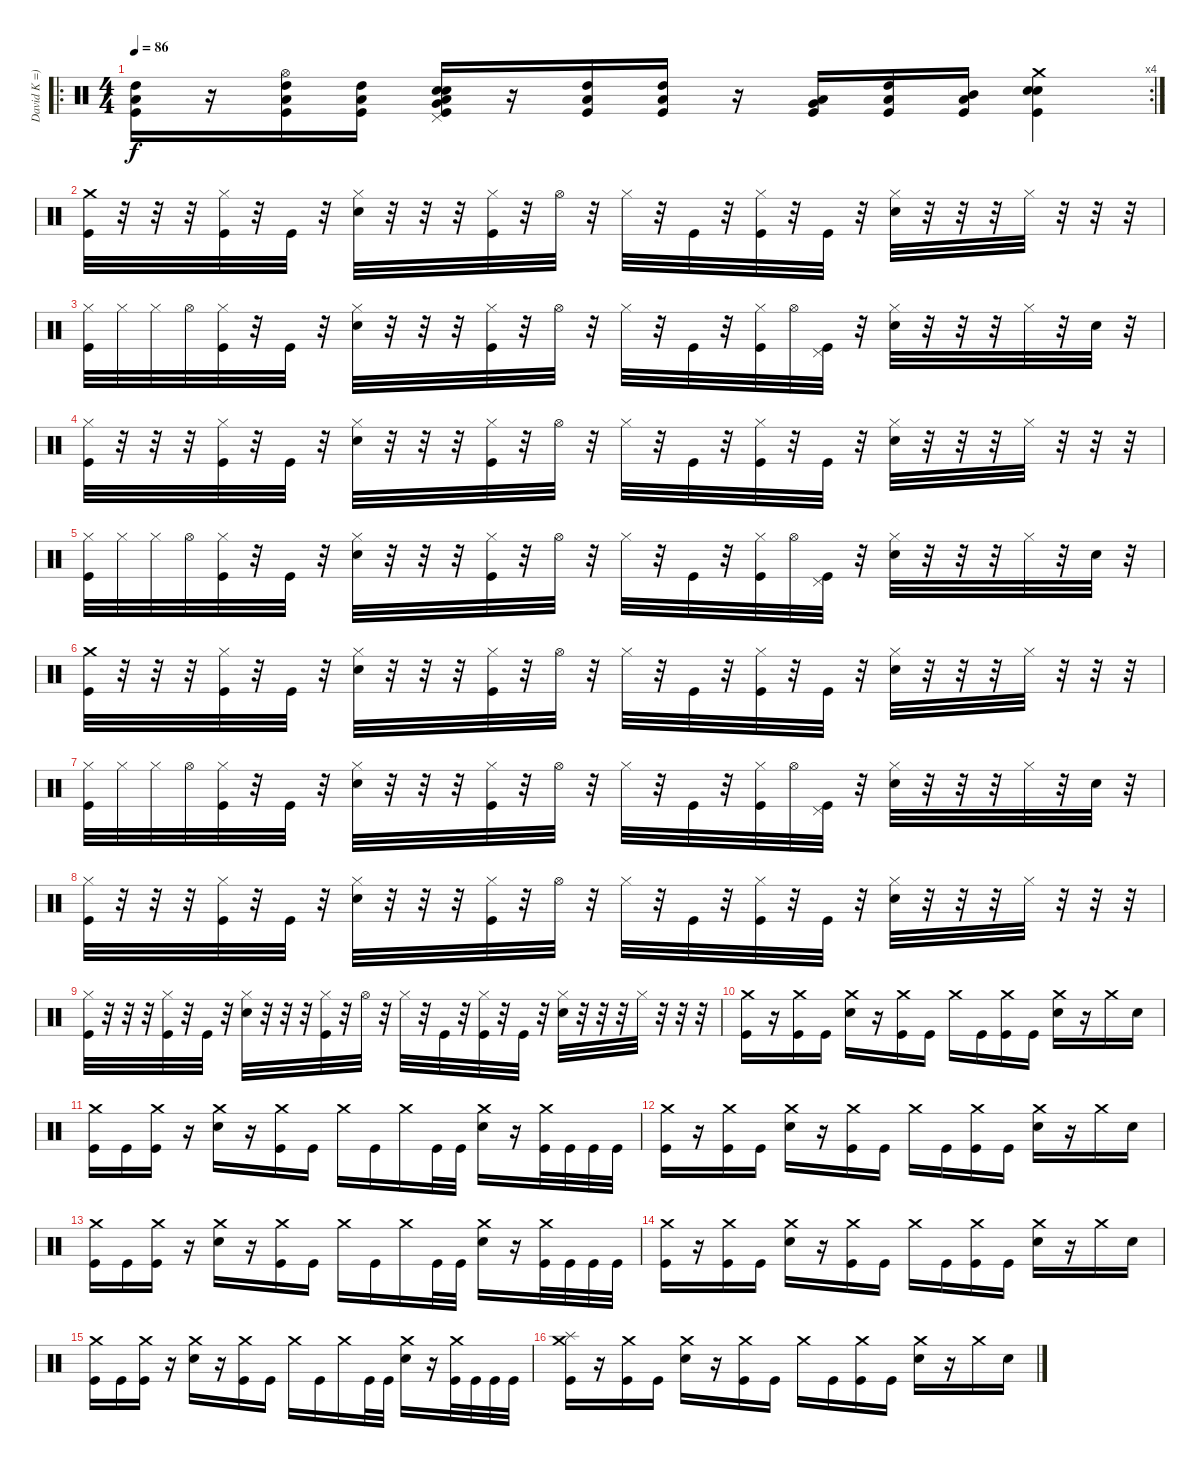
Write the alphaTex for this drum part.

\track ("David K =)" "David K =)") {instrument percussion}
\staff {score}
\articulation defaults
\ro
\rc 4
\ts (4 4)
\tempo 86
\clef neutral
\ks c
("Low Floor Tom (hit)" "High Tom (hit)" "Kick (hit)").16{dy f} r.16 ("Hi-Hat (open)" "Low Floor Tom (hit)" "High Tom (hit)" "Kick (hit)").16 ("Low Floor Tom (hit)" "High Tom (hit)" "Kick (hit)").16 ("Pedal Hi-Hat (hit)" "Low Floor Tom (hit)" "Electric Snare (hit)" "Kick (hit)" "Snare (hit) 2" "Very Low Tom (hit)").16 r.16 ("Low Floor Tom (hit)" "High Tom (hit)" "Kick (hit)").16 ("Low Floor Tom (hit)" "High Tom (hit)" "Kick (hit)").16 r.16 ("Low Floor Tom (hit)" "Very Low Tom (hit)" "Kick (hit)").16 ("Low Floor Tom (hit)" "High Tom (hit)" "Kick (hit)").16 ("Low Floor Tom (hit)" "Mid Tom (hit)" "Kick (hit)").16 ("Crash medium (hit)" "Snare (hit) 2" "Electric Snare (hit)" "Kick (hit)").4 |
("Crash medium (hit)" "Kick (hit)").32 r.32 r.32 r.32 ("Hi-Hat (closed)" "Kick (hit)").32 r.32 "Kick (hit)".32 r.32 ("Hi-Hat (closed)" "Electric Snare (hit)").32 r.32 r.32 r.32 ("Hi-Hat (closed)" "Kick (hit)").32 r.32 "Hi-Hat (open)".32 r.32 "Hi-Hat (closed)".32 r.32 "Kick (hit)".32 r.32 ("Hi-Hat (closed)" "Kick (hit)").32 r.32 "Kick (hit)".32 r.32 ("Hi-Hat (closed)" "Electric Snare (hit)").32 r.32 r.32 r.32 "Hi-Hat (closed)".32 r.32 r.32 r.32 |
("Hi-Hat (closed)" "Kick (hit)").32 "Hi-Hat (closed)".32 "Hi-Hat (closed)".32 "Hi-Hat (open)".32 ("Hi-Hat (closed)" "Kick (hit)").32 r.32 "Kick (hit)".32 r.32 ("Hi-Hat (closed)" "Electric Snare (hit)").32 r.32 r.32 r.32 ("Hi-Hat (closed)" "Kick (hit)").32 r.32 "Hi-Hat (open)".32 r.32 "Hi-Hat (closed)".32 r.32 "Kick (hit)".32 r.32 ("Hi-Hat (closed)" "Kick (hit)").32 "Hi-Hat (open)".32 ("Pedal Hi-Hat (hit)" "Kick (hit)").32 r.32 ("Hi-Hat (closed)" "Electric Snare (hit)").32 r.32 r.32 r.32 "Hi-Hat (closed)".32 r.32 "Electric Snare (hit)".32 r.32 |
("Hi-Hat (closed)" "Kick (hit)").32 r.32 r.32 r.32 ("Hi-Hat (closed)" "Kick (hit)").32 r.32 "Kick (hit)".32 r.32 ("Hi-Hat (closed)" "Electric Snare (hit)").32 r.32 r.32 r.32 ("Hi-Hat (closed)" "Kick (hit)").32 r.32 "Hi-Hat (open)".32 r.32 "Hi-Hat (closed)".32 r.32 "Kick (hit)".32 r.32 ("Hi-Hat (closed)" "Kick (hit)").32 r.32 "Kick (hit)".32 r.32 ("Hi-Hat (closed)" "Electric Snare (hit)").32 r.32 r.32 r.32 "Hi-Hat (closed)".32 r.32 r.32 r.32 |
("Hi-Hat (closed)" "Kick (hit)").32 "Hi-Hat (closed)".32 "Hi-Hat (closed)".32 "Hi-Hat (open)".32 ("Hi-Hat (closed)" "Kick (hit)").32 r.32 "Kick (hit)".32 r.32 ("Hi-Hat (closed)" "Electric Snare (hit)").32 r.32 r.32 r.32 ("Hi-Hat (closed)" "Kick (hit)").32 r.32 "Hi-Hat (open)".32 r.32 "Hi-Hat (closed)".32 r.32 "Kick (hit)".32 r.32 ("Hi-Hat (closed)" "Kick (hit)").32 "Hi-Hat (open)".32 ("Pedal Hi-Hat (hit)" "Kick (hit)").32 r.32 ("Hi-Hat (closed)" "Electric Snare (hit)").32 r.32 r.32 r.32 "Hi-Hat (closed)".32 r.32 "Electric Snare (hit)".32 r.32 |
("Crash medium (hit)" "Kick (hit)").32 r.32 r.32 r.32 ("Hi-Hat (closed)" "Kick (hit)").32 r.32 "Kick (hit)".32 r.32 ("Hi-Hat (closed)" "Electric Snare (hit)").32 r.32 r.32 r.32 ("Hi-Hat (closed)" "Kick (hit)").32 r.32 "Hi-Hat (open)".32 r.32 "Hi-Hat (closed)".32 r.32 "Kick (hit)".32 r.32 ("Hi-Hat (closed)" "Kick (hit)").32 r.32 "Kick (hit)".32 r.32 ("Hi-Hat (closed)" "Electric Snare (hit)").32 r.32 r.32 r.32 "Hi-Hat (closed)".32 r.32 r.32 r.32 |
("Hi-Hat (closed)" "Kick (hit)").32 "Hi-Hat (closed)".32 "Hi-Hat (closed)".32 "Hi-Hat (open)".32 ("Hi-Hat (closed)" "Kick (hit)").32 r.32 "Kick (hit)".32 r.32 ("Hi-Hat (closed)" "Electric Snare (hit)").32 r.32 r.32 r.32 ("Hi-Hat (closed)" "Kick (hit)").32 r.32 "Hi-Hat (open)".32 r.32 "Hi-Hat (closed)".32 r.32 "Kick (hit)".32 r.32 ("Hi-Hat (closed)" "Kick (hit)").32 "Hi-Hat (open)".32 ("Pedal Hi-Hat (hit)" "Kick (hit)").32 r.32 ("Hi-Hat (closed)" "Electric Snare (hit)").32 r.32 r.32 r.32 "Hi-Hat (closed)".32 r.32 "Electric Snare (hit)".32 r.32 |
("Hi-Hat (closed)" "Kick (hit)").32 r.32 r.32 r.32 ("Hi-Hat (closed)" "Kick (hit)").32 r.32 "Kick (hit)".32 r.32 ("Hi-Hat (closed)" "Electric Snare (hit)").32 r.32 r.32 r.32 ("Hi-Hat (closed)" "Kick (hit)").32 r.32 "Hi-Hat (open)".32 r.32 "Hi-Hat (closed)".32 r.32 "Kick (hit)".32 r.32 ("Hi-Hat (closed)" "Kick (hit)").32 r.32 "Kick (hit)".32 r.32 ("Hi-Hat (closed)" "Electric Snare (hit)").32 r.32 r.32 r.32 "Hi-Hat (closed)".32 r.32 r.32 r.32 |
("Hi-Hat (closed)" "Kick (hit)").32 r.32 r.32 r.32 ("Hi-Hat (closed)" "Kick (hit)").32 r.32 "Kick (hit)".32 r.32 ("Hi-Hat (closed)" "Electric Snare (hit)").32 r.32 r.32 r.32 ("Hi-Hat (closed)" "Kick (hit)").32 r.32 "Hi-Hat (open)".32 r.32 "Hi-Hat (closed)".32 r.32 "Kick (hit)".32 r.32 ("Hi-Hat (closed)" "Kick (hit)").32 r.32 "Kick (hit)".32 r.32 ("Hi-Hat (closed)" "Electric Snare (hit)").32 r.32 r.32 r.32 "Hi-Hat (closed)".32 r.32 r.32 r.32 |
("Crash medium (hit)" "Kick (hit)").16 r.16 ("Crash medium (hit)" "Kick (hit)").16 "Kick (hit)".16 ("Crash medium (hit)" "Electric Snare (hit)").16 r.16 ("Crash medium (hit)" "Kick (hit)").16 "Kick (hit)".16 "Crash medium (hit)".16 "Kick (hit)".16 ("Crash medium (hit)" "Kick (hit)").16 "Kick (hit)".16 ("Crash medium (hit)" "Electric Snare (hit)").16 r.16 "Crash medium (hit)".16 "Electric Snare (hit)".16 |
("Crash medium (hit)" "Kick (hit)").16 "Kick (hit)".16 ("Crash medium (hit)" "Kick (hit)").16 r.16 ("Crash medium (hit)" "Electric Snare (hit)").16 r.16 ("Crash medium (hit)" "Kick (hit)").16 "Kick (hit)".16 "Crash medium (hit)".16 "Kick (hit)".16 "Crash medium (hit)".16 "Kick (hit)".32 "Kick (hit)".32 ("Crash medium (hit)" "Electric Snare (hit)").16 r.16 ("Crash medium (hit)" "Kick (hit)").32 "Kick (hit)".32 "Kick (hit)".32 "Kick (hit)".32 |
("Crash medium (hit)" "Kick (hit)").16 r.16 ("Crash medium (hit)" "Kick (hit)").16 "Kick (hit)".16 ("Crash medium (hit)" "Electric Snare (hit)").16 r.16 ("Crash medium (hit)" "Kick (hit)").16 "Kick (hit)".16 "Crash medium (hit)".16 "Kick (hit)".16 ("Crash medium (hit)" "Kick (hit)").16 "Kick (hit)".16 ("Crash medium (hit)" "Electric Snare (hit)").16 r.16 "Crash medium (hit)".16 "Electric Snare (hit)".16 |
("Crash medium (hit)" "Kick (hit)").16 "Kick (hit)".16 ("Crash medium (hit)" "Kick (hit)").16 r.16 ("Crash medium (hit)" "Electric Snare (hit)").16 r.16 ("Crash medium (hit)" "Kick (hit)").16 "Kick (hit)".16 "Crash medium (hit)".16 "Kick (hit)".16 "Crash medium (hit)".16 "Kick (hit)".32 "Kick (hit)".32 ("Crash medium (hit)" "Electric Snare (hit)").16 r.16 ("Crash medium (hit)" "Kick (hit)").32 "Kick (hit)".32 "Kick (hit)".32 "Kick (hit)".32 |
("Crash medium (hit)" "Kick (hit)").16 r.16 ("Crash medium (hit)" "Kick (hit)").16 "Kick (hit)".16 ("Crash medium (hit)" "Electric Snare (hit)").16 r.16 ("Crash medium (hit)" "Kick (hit)").16 "Kick (hit)".16 "Crash medium (hit)".16 "Kick (hit)".16 ("Crash medium (hit)" "Kick (hit)").16 "Kick (hit)".16 ("Crash medium (hit)" "Electric Snare (hit)").16 r.16 "Crash medium (hit)".16 "Electric Snare (hit)".16 |
("Crash medium (hit)" "Kick (hit)").16 "Kick (hit)".16 ("Crash medium (hit)" "Kick (hit)").16 r.16 ("Crash medium (hit)" "Electric Snare (hit)").16 r.16 ("Crash medium (hit)" "Kick (hit)").16 "Kick (hit)".16 "Crash medium (hit)".16 "Kick (hit)".16 "Crash medium (hit)".16 "Kick (hit)".32 "Kick (hit)".32 ("Crash medium (hit)" "Electric Snare (hit)").16 r.16 ("Crash medium (hit)" "Kick (hit)").32 "Kick (hit)".32 "Kick (hit)".32 "Kick (hit)".32 |
("Splash (hit)" "Crash medium (hit)" "Kick (hit)").16 r.16 ("Crash medium (hit)" "Kick (hit)").16 "Kick (hit)".16 ("Crash medium (hit)" "Electric Snare (hit)").16 r.16 ("Crash medium (hit)" "Kick (hit)").16 "Kick (hit)".16 "Crash medium (hit)".16 "Kick (hit)".16 ("Crash medium (hit)" "Kick (hit)").16 "Kick (hit)".16 ("Crash medium (hit)" "Electric Snare (hit)").16 r.16 "Crash medium (hit)".16 "Electric Snare (hit)".16
